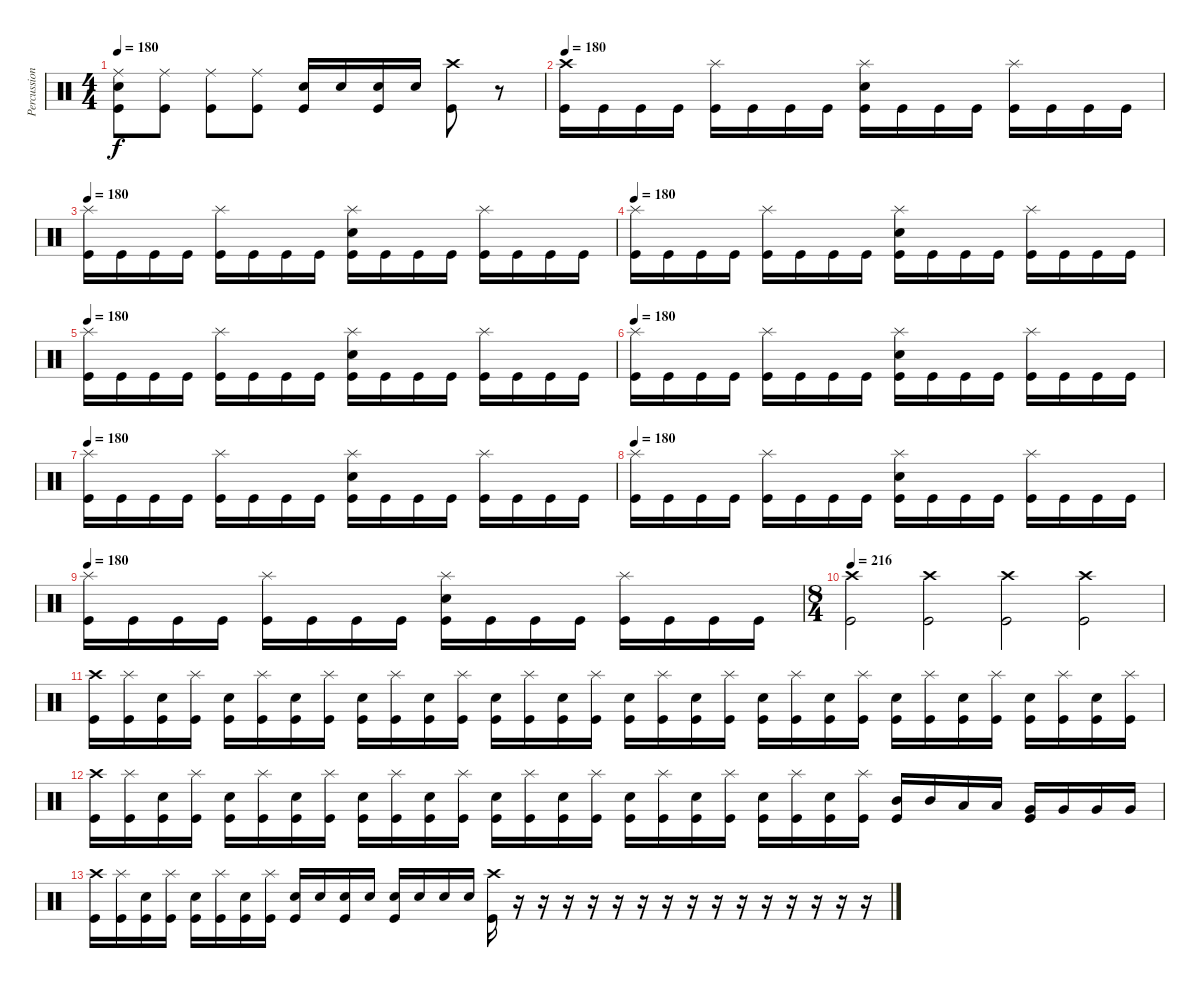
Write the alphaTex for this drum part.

\track ("Percussion" "Percussion") {instrument percussion}
\staff {score}
\articulation defaults
\ts (4 4)
\tempo 180
\clef neutral
\ks c
("Ride (middle)" "Electric Snare (hit)" "Kick (hit)").8{dy f} ("Ride (middle)" "Kick (hit)").8 ("Ride (middle)" "Kick (hit)").8 ("Ride (middle)" "Kick (hit)").8 ("Electric Snare (hit)" "Kick (hit)").16 "Electric Snare (hit)".16 ("Electric Snare (hit)" "Kick (hit)").16 "Electric Snare (hit)".16 ("Crash high (hit)" "Kick (hit)").8 r.8 |
\tempo 180
("Crash high (hit)" "Kick (hit)").16 "Kick (hit)".16 "Kick (hit)".16 "Kick (hit)".16 ("Splash (hit)" "Kick (hit)").16 "Kick (hit)".16 "Kick (hit)".16 "Kick (hit)".16 ("Splash (hit)" "Electric Snare (hit)" "Kick (hit)").16 "Kick (hit)".16 "Kick (hit)".16 "Kick (hit)".16 ("Splash (hit)" "Kick (hit)").16 "Kick (hit)".16 "Kick (hit)".16 "Kick (hit)".16 |
\tempo 180
("Splash (hit)" "Kick (hit)").16 "Kick (hit)".16 "Kick (hit)".16 "Kick (hit)".16 ("Splash (hit)" "Kick (hit)").16 "Kick (hit)".16 "Kick (hit)".16 "Kick (hit)".16 ("Splash (hit)" "Electric Snare (hit)" "Kick (hit)").16 "Kick (hit)".16 "Kick (hit)".16 "Kick (hit)".16 ("Splash (hit)" "Kick (hit)").16 "Kick (hit)".16 "Kick (hit)".16 "Kick (hit)".16 |
\tempo 180
("Splash (hit)" "Kick (hit)").16 "Kick (hit)".16 "Kick (hit)".16 "Kick (hit)".16 ("Splash (hit)" "Kick (hit)").16 "Kick (hit)".16 "Kick (hit)".16 "Kick (hit)".16 ("Splash (hit)" "Electric Snare (hit)" "Kick (hit)").16 "Kick (hit)".16 "Kick (hit)".16 "Kick (hit)".16 ("Splash (hit)" "Kick (hit)").16 "Kick (hit)".16 "Kick (hit)".16 "Kick (hit)".16 |
\tempo 180
("Splash (hit)" "Kick (hit)").16 "Kick (hit)".16 "Kick (hit)".16 "Kick (hit)".16 ("Splash (hit)" "Kick (hit)").16 "Kick (hit)".16 "Kick (hit)".16 "Kick (hit)".16 ("Splash (hit)" "Electric Snare (hit)" "Kick (hit)").16 "Kick (hit)".16 "Kick (hit)".16 "Kick (hit)".16 ("Splash (hit)" "Kick (hit)").16 "Kick (hit)".16 "Kick (hit)".16 "Kick (hit)".16 |
\tempo 180
("Splash (hit)" "Kick (hit)").16 "Kick (hit)".16 "Kick (hit)".16 "Kick (hit)".16 ("Splash (hit)" "Kick (hit)").16 "Kick (hit)".16 "Kick (hit)".16 "Kick (hit)".16 ("Splash (hit)" "Electric Snare (hit)" "Kick (hit)").16 "Kick (hit)".16 "Kick (hit)".16 "Kick (hit)".16 ("Splash (hit)" "Kick (hit)").16 "Kick (hit)".16 "Kick (hit)".16 "Kick (hit)".16 |
\tempo 180
("Splash (hit)" "Kick (hit)").16 "Kick (hit)".16 "Kick (hit)".16 "Kick (hit)".16 ("Splash (hit)" "Kick (hit)").16 "Kick (hit)".16 "Kick (hit)".16 "Kick (hit)".16 ("Splash (hit)" "Electric Snare (hit)" "Kick (hit)").16 "Kick (hit)".16 "Kick (hit)".16 "Kick (hit)".16 ("Splash (hit)" "Kick (hit)").16 "Kick (hit)".16 "Kick (hit)".16 "Kick (hit)".16 |
\tempo 180
("Splash (hit)" "Kick (hit)").16 "Kick (hit)".16 "Kick (hit)".16 "Kick (hit)".16 ("Splash (hit)" "Kick (hit)").16 "Kick (hit)".16 "Kick (hit)".16 "Kick (hit)".16 ("Splash (hit)" "Electric Snare (hit)" "Kick (hit)").16 "Kick (hit)".16 "Kick (hit)".16 "Kick (hit)".16 ("Splash (hit)" "Kick (hit)").16 "Kick (hit)".16 "Kick (hit)".16 "Kick (hit)".16 |
\tempo 180
("Splash (hit)" "Kick (hit)").16 "Kick (hit)".16 "Kick (hit)".16 "Kick (hit)".16 ("Splash (hit)" "Kick (hit)").16 "Kick (hit)".16 "Kick (hit)".16 "Kick (hit)".16 ("Splash (hit)" "Electric Snare (hit)" "Kick (hit)").16 "Kick (hit)".16 "Kick (hit)".16 "Kick (hit)".16 ("Splash (hit)" "Kick (hit)").16 "Kick (hit)".16 "Kick (hit)".16 "Kick (hit)".16 |
\ts (8 4)
\tempo 216
("Crash high (hit)" "Kick (hit)").2 ("Crash high (hit)" "Kick (hit)").2 ("Crash high (hit)" "Kick (hit)").2 ("Crash high (hit)" "Kick (hit)").2 |
("Crash high (hit)" "Kick (hit)").16 ("Splash (hit)" "Kick (hit)").16 ("Electric Snare (hit)" "Kick (hit)").16 ("Splash (hit)" "Kick (hit)").16 ("Electric Snare (hit)" "Kick (hit)").16 ("Splash (hit)" "Kick (hit)").16 ("Electric Snare (hit)" "Kick (hit)").16 ("Splash (hit)" "Kick (hit)").16 ("Electric Snare (hit)" "Kick (hit)").16 ("Splash (hit)" "Kick (hit)").16 ("Electric Snare (hit)" "Kick (hit)").16 ("Splash (hit)" "Kick (hit)").16 ("Electric Snare (hit)" "Kick (hit)").16 ("Splash (hit)" "Kick (hit)").16 ("Electric Snare (hit)" "Kick (hit)").16 ("Splash (hit)" "Kick (hit)").16 ("Electric Snare (hit)" "Kick (hit)").16 ("Splash (hit)" "Kick (hit)").16 ("Electric Snare (hit)" "Kick (hit)").16 ("Splash (hit)" "Kick (hit)").16 ("Electric Snare (hit)" "Kick (hit)").16 ("Splash (hit)" "Kick (hit)").16 ("Electric Snare (hit)" "Kick (hit)").16 ("Splash (hit)" "Kick (hit)").16 ("Electric Snare (hit)" "Kick (hit)").16 ("Splash (hit)" "Kick (hit)").16 ("Electric Snare (hit)" "Kick (hit)").16 ("Splash (hit)" "Kick (hit)").16 ("Electric Snare (hit)" "Kick (hit)").16 ("Splash (hit)" "Kick (hit)").16 ("Electric Snare (hit)" "Kick (hit)").16 ("Splash (hit)" "Kick (hit)").16 |
("Crash high (hit)" "Kick (hit)").16 ("Splash (hit)" "Kick (hit)").16 ("Electric Snare (hit)" "Kick (hit)").16 ("Splash (hit)" "Kick (hit)").16 ("Electric Snare (hit)" "Kick (hit)").16 ("Splash (hit)" "Kick (hit)").16 ("Electric Snare (hit)" "Kick (hit)").16 ("Splash (hit)" "Kick (hit)").16 ("Electric Snare (hit)" "Kick (hit)").16 ("Splash (hit)" "Kick (hit)").16 ("Electric Snare (hit)" "Kick (hit)").16 ("Splash (hit)" "Kick (hit)").16 ("Electric Snare (hit)" "Kick (hit)").16 ("Splash (hit)" "Kick (hit)").16 ("Electric Snare (hit)" "Kick (hit)").16 ("Splash (hit)" "Kick (hit)").16 ("Electric Snare (hit)" "Kick (hit)").16 ("Splash (hit)" "Kick (hit)").16 ("Electric Snare (hit)" "Kick (hit)").16 ("Splash (hit)" "Kick (hit)").16 ("Electric Snare (hit)" "Kick (hit)").16 ("Splash (hit)" "Kick (hit)").16 ("Electric Snare (hit)" "Kick (hit)").16 ("Splash (hit)" "Kick (hit)").16 ("Mid Tom (hit)" "Kick (hit)").16 "Mid Tom (hit)".16 "Low Tom (hit)".16 "Low Tom (hit)".16 ("Very Low Tom (hit)" "Kick (hit)").16 "Very Low Tom (hit)".16 "Very Low Tom (hit)".16 "Very Low Tom (hit)".16 |
("Crash high (hit)" "Kick (hit)").16 ("Splash (hit)" "Kick (hit)").16 ("Electric Snare (hit)" "Kick (hit)").16 ("Splash (hit)" "Kick (hit)").16 ("Electric Snare (hit)" "Kick (hit)").16 ("Splash (hit)" "Kick (hit)").16 ("Electric Snare (hit)" "Kick (hit)").16 ("Splash (hit)" "Kick (hit)").16 ("Electric Snare (hit)" "Kick (hit)").16 "Electric Snare (hit)".16 ("Electric Snare (hit)" "Kick (hit)").16 "Electric Snare (hit)".16 ("Electric Snare (hit)" "Kick (hit)").16 "Electric Snare (hit)".16 "Electric Snare (hit)".16 "Electric Snare (hit)".16 ("Crash high (hit)" "Kick (hit)").16 r.16 r.16 r.16 r.16 r.16 r.16 r.16 r.16 r.16 r.16 r.16 r.16 r.16 r.16 r.16
